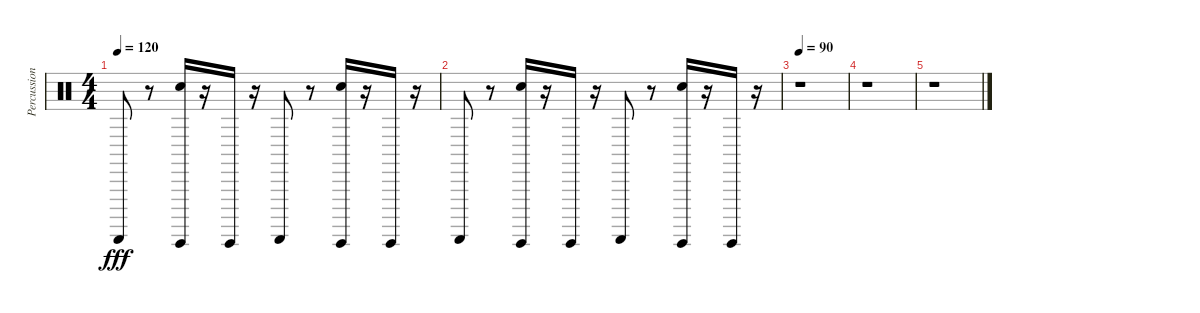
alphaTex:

\track ("Percussions" "Percussion") {instrument percussion}
\staff {score}
\articulation defaults
\ts (4 4)
\tempo 120
\clef neutral
\ks c "Guiro (scrap-return)".8{dy fff}
r.8 ("Guiro (hit)" "Hand Clap (hit)").16 r.16 "Guiro (hit)".16 r.16 "Guiro (scrap-return)".8 r.8 ("Guiro (hit)" "Hand Clap (hit)").16 r.16 "Guiro (hit)".16 r.16 |
"Guiro (scrap-return)".8 r.8 ("Guiro (hit)" "Hand Clap (hit)").16 r.16 "Guiro (hit)".16 r.16 "Guiro (scrap-return)".8 r.8 ("Guiro (hit)" "Hand Clap (hit)").16 r.16 "Guiro (hit)".16 r.16 |
\tempo 90
r.1 |
r.1 |
r.1
